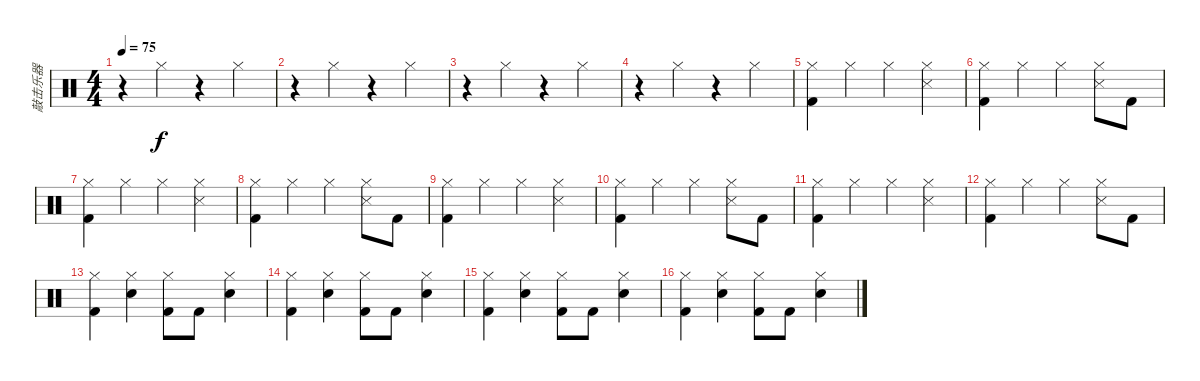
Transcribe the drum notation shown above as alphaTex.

\track ("敲击乐器" "敲击乐器") {instrument percussion}
\staff {score}
\articulation defaults
\ts (4 4)
\tempo 75
\clef neutral
\ks c
r.4{dy f} "Hi-Hat (closed)".4 r.4 "Hi-Hat (closed)".4 |
r.4 "Hi-Hat (closed)".4 r.4 "Hi-Hat (closed)".4 |
r.4 "Hi-Hat (closed)".4 r.4 "Hi-Hat (closed)".4 |
r.4 "Hi-Hat (closed)".4 r.4 "Hi-Hat (closed)".4 |
("Hi-Hat (closed)" "Kick (hit) 2").4 "Hi-Hat (closed)".4 "Hi-Hat (closed)".4 ("Hi-Hat (closed)" "Snare (side stick) 3").4 |
("Hi-Hat (closed)" "Kick (hit) 2").4 "Hi-Hat (closed)".4 "Hi-Hat (closed)".4 ("Hi-Hat (closed)" "Snare (side stick) 3").8 "Kick (hit) 2".8 |
("Hi-Hat (closed)" "Kick (hit) 2").4 "Hi-Hat (closed)".4 "Hi-Hat (closed)".4 ("Hi-Hat (closed)" "Snare (side stick) 3").4 |
("Hi-Hat (closed)" "Kick (hit) 2").4 "Hi-Hat (closed)".4 "Hi-Hat (closed)".4 ("Hi-Hat (closed)" "Snare (side stick) 3").8 "Kick (hit) 2".8 |
("Hi-Hat (closed)" "Kick (hit) 2").4 "Hi-Hat (closed)".4 "Hi-Hat (closed)".4 ("Hi-Hat (closed)" "Snare (side stick) 3").4 |
("Hi-Hat (closed)" "Kick (hit) 2").4 "Hi-Hat (closed)".4 "Hi-Hat (closed)".4 ("Hi-Hat (closed)" "Snare (side stick) 3").8 "Kick (hit) 2".8 |
("Hi-Hat (closed)" "Kick (hit) 2").4 "Hi-Hat (closed)".4 "Hi-Hat (closed)".4 ("Hi-Hat (closed)" "Snare (side stick) 3").4 |
("Hi-Hat (closed)" "Kick (hit) 2").4 "Hi-Hat (closed)".4 "Hi-Hat (closed)".4 ("Hi-Hat (closed)" "Snare (side stick) 3").8 "Kick (hit) 2".8 |
("Hi-Hat (closed)" "Kick (hit) 2").4 ("Hi-Hat (closed)" "Electric Snare (hit)").4 ("Hi-Hat (closed)" "Kick (hit) 2").8 "Kick (hit) 2".8 ("Hi-Hat (closed)" "Electric Snare (hit)").4 |
("Hi-Hat (closed)" "Kick (hit) 2").4 ("Hi-Hat (closed)" "Electric Snare (hit)").4 ("Hi-Hat (closed)" "Kick (hit) 2").8 "Kick (hit) 2".8 ("Hi-Hat (closed)" "Electric Snare (hit)").4 |
("Hi-Hat (closed)" "Kick (hit) 2").4 ("Hi-Hat (closed)" "Electric Snare (hit)").4 ("Hi-Hat (closed)" "Kick (hit) 2").8 "Kick (hit) 2".8 ("Hi-Hat (closed)" "Electric Snare (hit)").4 |
("Hi-Hat (closed)" "Kick (hit) 2").4 ("Hi-Hat (closed)" "Electric Snare (hit)").4 ("Hi-Hat (closed)" "Kick (hit) 2").8 "Kick (hit) 2".8 ("Hi-Hat (closed)" "Electric Snare (hit)").4
